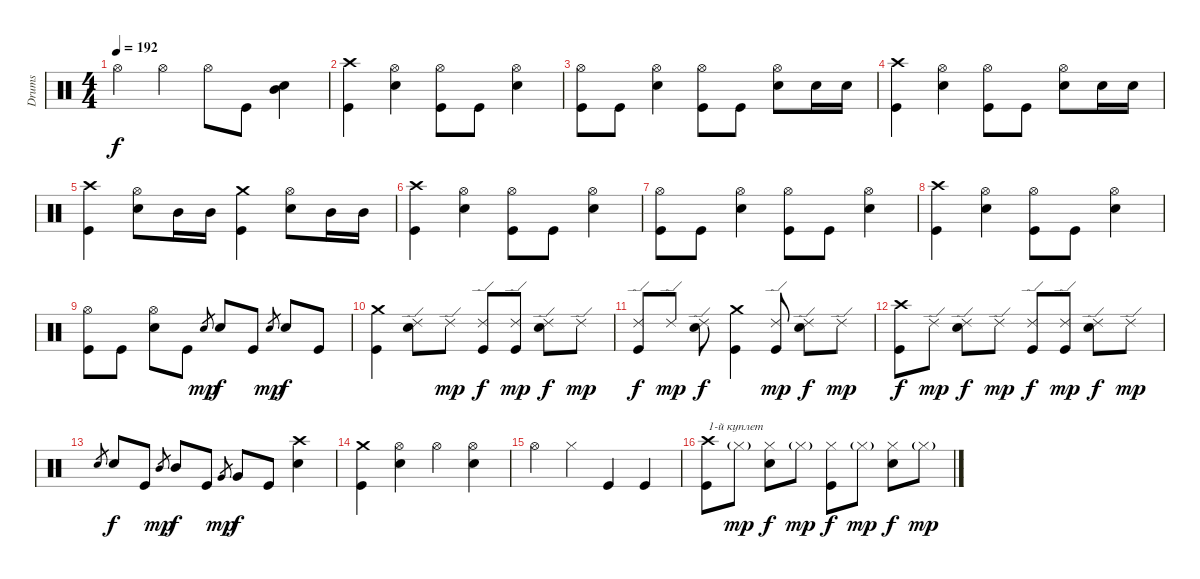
\track ("Drums" "Drums") {instrument percussion}
\staff {score}
\articulation defaults
\ts (4 4)
\tempo 192
\clef neutral
\ks c "Hi-Hat (open)".4{dy f} "Hi-Hat (open)".4 "Hi-Hat (open)".8 "Kick (hit)".8
("Mid Tom (hit)" "Electric Snare (hit)").4 |
("Crash high (hit)" "Kick (hit)").4 ("Hi-Hat (open)" "Electric Snare (hit)").4 ("Hi-Hat (open)" "Kick (hit)").8 "Kick (hit)".8 ("Hi-Hat (open)" "Electric Snare (hit)").4 |
("Hi-Hat (open)" "Kick (hit)").8 "Kick (hit)".8 ("Hi-Hat (open)" "Electric Snare (hit)").4 ("Hi-Hat (open)" "Kick (hit)").8 "Kick (hit)".8 ("Hi-Hat (open)" "Electric Snare (hit)").8 "Electric Snare (hit)".16 "Electric Snare (hit)".16 |
("Crash high (hit)" "Kick (hit)").4 ("Hi-Hat (open)" "Electric Snare (hit)").4 ("Hi-Hat (open)" "Kick (hit)").8 "Kick (hit)".8 ("Hi-Hat (open)" "Electric Snare (hit)").8 "Electric Snare (hit)".16 "Electric Snare (hit)".16 |
("Crash high (hit)" "Kick (hit)").4 ("Hi-Hat (open)" "Electric Snare (hit)").8 "Mid Tom (hit)".16 "Mid Tom (hit)".16 ("Crash medium (hit)" "Kick (hit)").4 ("Hi-Hat (open)" "Electric Snare (hit)").8 "Mid Tom (hit)".16 "Mid Tom (hit)".16 |
("Crash high (hit)" "Kick (hit)").4 ("Hi-Hat (open)" "Electric Snare (hit)").4 ("Hi-Hat (open)" "Kick (hit)").8 "Kick (hit)".8 ("Hi-Hat (open)" "Electric Snare (hit)").4 |
("Hi-Hat (open)" "Kick (hit)").8 "Kick (hit)".8 ("Hi-Hat (open)" "Electric Snare (hit)").4 ("Hi-Hat (open)" "Kick (hit)").8 "Kick (hit)".8 ("Hi-Hat (open)" "Electric Snare (hit)").4 |
("Crash high (hit)" "Kick (hit)").4 ("Hi-Hat (open)" "Electric Snare (hit)").4 ("Hi-Hat (open)" "Kick (hit)").8 "Kick (hit)".8 ("Hi-Hat (open)" "Electric Snare (hit)").4 |
("Hi-Hat (open)" "Kick (hit)").8 "Kick (hit)".8 ("Hi-Hat (open)" "Electric Snare (hit)").8 "Kick (hit)".8 "Electric Snare (hit)".8{gr dy mp} "Electric Snare (hit)".8{dy f} "Kick (hit)".8 "Electric Snare (hit)".8{gr dy mp} "Electric Snare (hit)".8{dy f} "Kick (hit)".8 |
("Crash medium (hit)" "Kick (hit)").4 ("Ride (edge) 2" "Electric Snare (hit)").8 "Ride (edge) 2".8{dy mp} ("Ride (edge) 2" "Kick (hit)").8{dy f} ("Ride (edge) 2" "Kick (hit)").8{dy mp} ("Ride (edge) 2" "Electric Snare (hit)").8{dy f} "Ride (edge) 2".8{dy mp} |
("Ride (edge) 2" "Kick (hit)").8{dy f} "Ride (edge) 2".8{dy mp} ("Ride (edge) 2" "Electric Snare (hit)").8{dy f} ("Crash medium (hit)" "Kick (hit)").4 ("Ride (edge) 2" "Kick (hit)").8{dy mp} ("Ride (edge) 2" "Electric Snare (hit)").8{dy f} "Ride (edge) 2".8{dy mp} |
("Crash high (hit)" "Kick (hit)").8{dy f} "Ride (edge) 2".8{dy mp} ("Ride (edge) 2" "Electric Snare (hit)").8{dy f} "Ride (edge) 2".8{dy mp} ("Ride (edge) 2" "Kick (hit)").8{dy f} ("Ride (edge) 2" "Kick (hit)").8{dy mp} ("Ride (edge) 2" "Electric Snare (hit)").8{dy f} "Ride (edge) 2".8{dy mp} |
"Electric Snare (hit)".8{gr} "Electric Snare (hit)".8{dy f} "Kick (hit)".8 "Mid Tom (hit)".8{gr dy mp} "Mid Tom (hit)".8{dy f} "Kick (hit)".8 "Very Low Tom (hit)".8{gr dy mp} "Very Low Tom (hit)".8{dy f} "Kick (hit)".8 ("Crash high (hit)" "Electric Snare (hit)").4 |
("Crash medium (hit)" "Kick (hit)").4 ("Hi-Hat (open)" "Electric Snare (hit)").4 "Hi-Hat (open)".4 ("Hi-Hat (open)" "Electric Snare (hit)").4 |
"Hi-Hat (open)".4 "Hi-Hat (closed)".4 "Kick (hit)".4 "Kick (hit)".4 |
("Crash high (hit)" "Kick (hit)").8{txt "1-й куплет"} "Hi-Hat (closed)"{g}.8{dy mp} ("Hi-Hat (closed)" "Electric Snare (hit)").8{dy f} "Hi-Hat (closed)"{g}.8{dy mp} ("Hi-Hat (closed)" "Kick (hit)").8{dy f} "Hi-Hat (closed)"{g}.8{dy mp} ("Hi-Hat (closed)" "Electric Snare (hit)").8{dy f} "Hi-Hat (closed)"{g}.8{dy mp}
